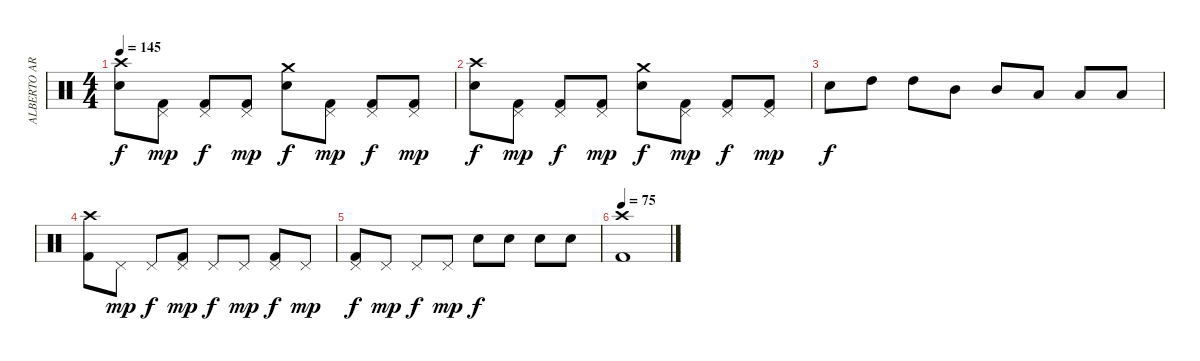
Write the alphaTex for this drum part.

\track ("ALBERTO ARDINES" "ALBERTO AR") {instrument percussion}
\staff {score}
\articulation defaults
\ts (4 4)
\tempo 145
\clef neutral
\ks c
("Crash high (hit)" "Electric Snare (hit)").8{dy f} ("Pedal Hi-Hat (hit)" "Kick (hit) 2").8{dy mp} ("Pedal Hi-Hat (hit)" "Kick (hit) 2").8{dy f} ("Pedal Hi-Hat (hit)" "Kick (hit) 2").8{dy mp} ("Crash medium (hit)" "Electric Snare (hit)").8{dy f} ("Pedal Hi-Hat (hit)" "Kick (hit) 2").8{dy mp} ("Pedal Hi-Hat (hit)" "Kick (hit) 2").8{dy f} ("Pedal Hi-Hat (hit)" "Kick (hit) 2").8{dy mp} |
("Crash high (hit)" "Electric Snare (hit)").8{dy f} ("Pedal Hi-Hat (hit)" "Kick (hit) 2").8{dy mp} ("Pedal Hi-Hat (hit)" "Kick (hit) 2").8{dy f} ("Pedal Hi-Hat (hit)" "Kick (hit) 2").8{dy mp} ("Crash medium (hit)" "Electric Snare (hit)").8{dy f} ("Pedal Hi-Hat (hit)" "Kick (hit) 2").8{dy mp} ("Pedal Hi-Hat (hit)" "Kick (hit) 2").8{dy f} ("Pedal Hi-Hat (hit)" "Kick (hit) 2").8{dy mp} |
"Electric Snare (hit)".8{dy f} "High Tom (hit)".8 "High Tom (hit)".8 "Mid Tom (hit)".8 "Mid Tom (hit)".8 "Low Tom (hit)".8 "Low Tom (hit)".8 "Low Tom (hit)".8 |
("Crash high (hit)" "Kick (hit) 2").8 "Pedal Hi-Hat (hit)".8{dy mp} "Pedal Hi-Hat (hit)".8{dy f} ("Pedal Hi-Hat (hit)" "Kick (hit) 2").8{dy mp} "Pedal Hi-Hat (hit)".8{dy f} "Pedal Hi-Hat (hit)".8{dy mp} ("Pedal Hi-Hat (hit)" "Kick (hit) 2").8{dy f} "Pedal Hi-Hat (hit)".8{dy mp} |
("Pedal Hi-Hat (hit)" "Kick (hit) 2").8{dy f} "Pedal Hi-Hat (hit)".8{dy mp} "Pedal Hi-Hat (hit)".8{dy f} "Pedal Hi-Hat (hit)".8{dy mp} "Electric Snare (hit)".8{dy f} "Electric Snare (hit)".8 "Electric Snare (hit)".8 "Electric Snare (hit)".8 |
\tempo 75
("Crash high (hit)" "Kick (hit) 2").1
